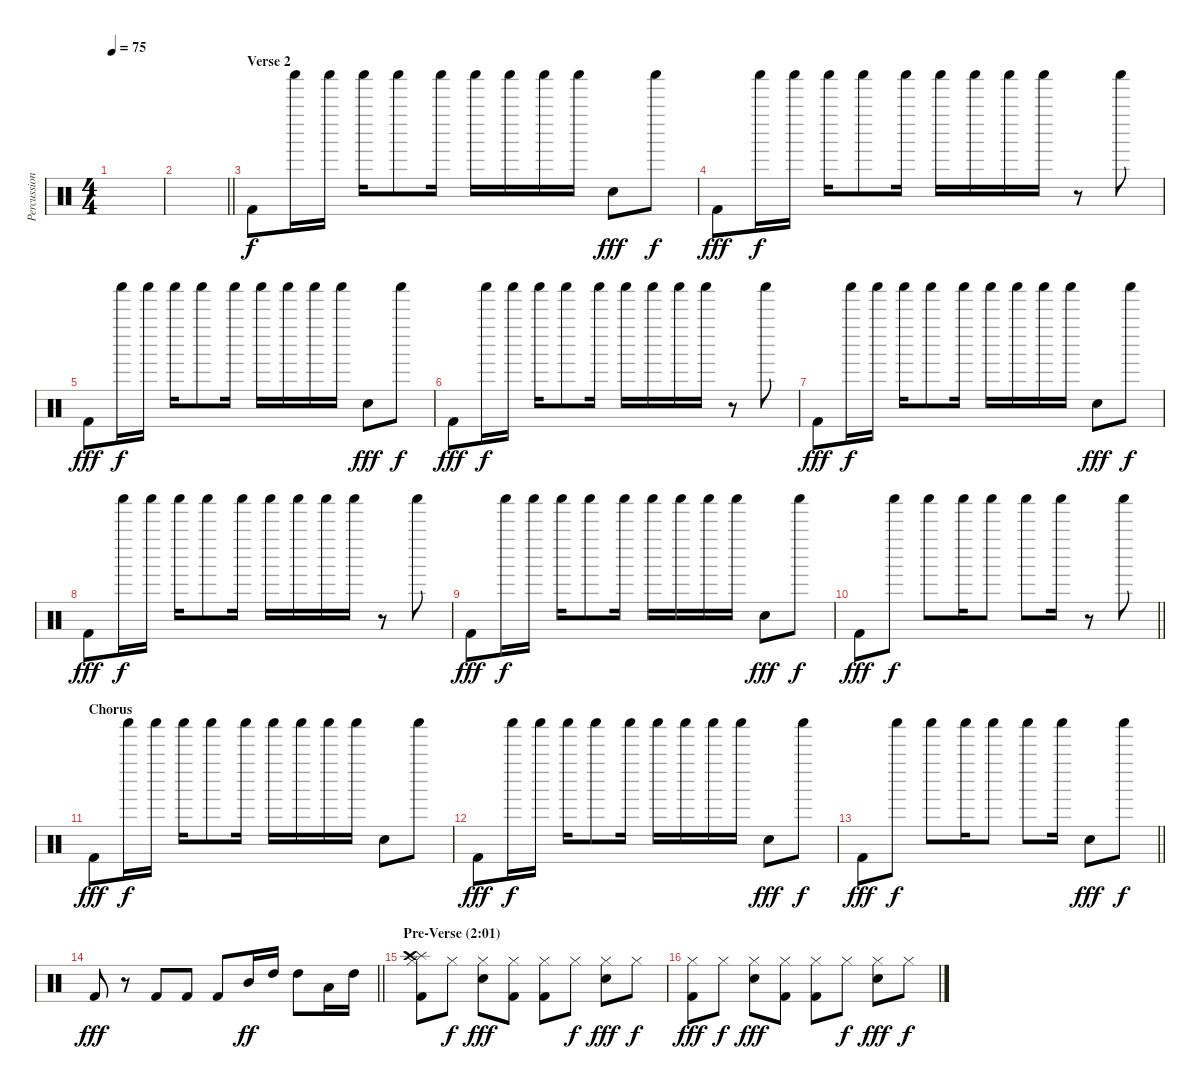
\track ("Percussion" "Percussion") {instrument percussion}
\staff {score}
\articulation defaults
\ts (4 4)
\tempo 75
\clef neutral
\ks c
|
\barLineRight lightlight
|
\section ("" "Verse 2")
"Kick (hit) 2".8 "Shaker (hit)".16{dy f} "Shaker (hit)".16 "Shaker (hit)".16 "Shaker (hit)".8 "Shaker (hit)".16 "Shaker (hit)".16 "Shaker (hit)".16 "Shaker (hit)".16 "Shaker (hit)".16 "Snare (hit) 2".8{dy fff} "Shaker (hit)".8{dy f} |
"Kick (hit) 2".8{dy fff} "Shaker (hit)".16{dy f} "Shaker (hit)".16 "Shaker (hit)".16 "Shaker (hit)".8 "Shaker (hit)".16 "Shaker (hit)".16 "Shaker (hit)".16 "Shaker (hit)".16 "Shaker (hit)".16 r.8 "Shaker (hit)".8 |
"Kick (hit) 2".8{dy fff} "Shaker (hit)".16{dy f} "Shaker (hit)".16 "Shaker (hit)".16 "Shaker (hit)".8 "Shaker (hit)".16 "Shaker (hit)".16 "Shaker (hit)".16 "Shaker (hit)".16 "Shaker (hit)".16 "Snare (hit) 2".8{dy fff} "Shaker (hit)".8{dy f} |
"Kick (hit) 2".8{dy fff} "Shaker (hit)".16{dy f} "Shaker (hit)".16 "Shaker (hit)".16 "Shaker (hit)".8 "Shaker (hit)".16 "Shaker (hit)".16 "Shaker (hit)".16 "Shaker (hit)".16 "Shaker (hit)".16 r.8 "Shaker (hit)".8 |
"Kick (hit) 2".8{dy fff} "Shaker (hit)".16{dy f} "Shaker (hit)".16 "Shaker (hit)".16 "Shaker (hit)".8 "Shaker (hit)".16 "Shaker (hit)".16 "Shaker (hit)".16 "Shaker (hit)".16 "Shaker (hit)".16 "Snare (hit) 2".8{dy fff} "Shaker (hit)".8{dy f} |
"Kick (hit) 2".8{dy fff} "Shaker (hit)".16{dy f} "Shaker (hit)".16 "Shaker (hit)".16 "Shaker (hit)".8 "Shaker (hit)".16 "Shaker (hit)".16 "Shaker (hit)".16 "Shaker (hit)".16 "Shaker (hit)".16 r.8 "Shaker (hit)".8 |
"Kick (hit) 2".8{dy fff} "Shaker (hit)".16{dy f} "Shaker (hit)".16 "Shaker (hit)".16 "Shaker (hit)".8 "Shaker (hit)".16 "Shaker (hit)".16 "Shaker (hit)".16 "Shaker (hit)".16 "Shaker (hit)".16 "Snare (hit) 2".8{dy fff} "Shaker (hit)".8{dy f} |
\barLineRight lightlight "Kick (hit) 2".8{dy fff} "Shaker (hit)".8{dy f} "Shaker (hit)".8 "Shaker (hit)".16 "Shaker (hit)".8 "Shaker (hit)".8 "Shaker (hit)".16
r.8 "Shaker (hit)".8 |
\section ("" "Chorus")
"Kick (hit) 2".8{dy fff} "Shaker (hit)".16{dy f} "Shaker (hit)".16 "Shaker (hit)".16 "Shaker (hit)".8 "Shaker (hit)".16 "Shaker (hit)".16 "Shaker (hit)".16 "Shaker (hit)".16 "Shaker (hit)".16 "Snare (hit) 2".8 "Shaker (hit)".8 |
"Kick (hit) 2".8{dy fff} "Shaker (hit)".16{dy f} "Shaker (hit)".16 "Shaker (hit)".16 "Shaker (hit)".8 "Shaker (hit)".16 "Shaker (hit)".16 "Shaker (hit)".16 "Shaker (hit)".16 "Shaker (hit)".16 "Snare (hit) 2".8{dy fff} "Shaker (hit)".8{dy f} |
\barLineRight lightlight "Kick (hit) 2".8{dy fff} "Shaker (hit)".8{dy f} "Shaker (hit)".8 "Shaker (hit)".16 "Shaker (hit)".8 "Shaker (hit)".8 "Shaker (hit)".16 "Snare (hit) 2".8{dy fff} "Shaker (hit)".8{dy f}
|
\barLineRight lightlight "Kick (hit) 2".8{dy fff}
r.8 "Kick (hit) 2".8 "Kick (hit) 2".8 "Kick (hit) 2".8 "Mid Tom (hit)".16{dy ff} "High Tom (hit)".16 "High Tom (hit)".8 "Low Tom (hit)".16 "High Tom (hit)".16 |
\section ("" "Pre-Verse (2:01)")
("Splash (hit)" "Kick (hit) 2" "Crash high (hit)" "Hi-Hat (closed)").8 "Hi-Hat (closed)".8{dy f} ("Snare (hit) 2" "Hi-Hat (closed)").8{dy fff} ("Kick (hit) 2" "Hi-Hat (closed)").8 ("Kick (hit) 2" "Hi-Hat (closed)").8 "Hi-Hat (closed)".8{dy f} ("Snare (hit) 2" "Hi-Hat (closed)").8{dy fff} "Hi-Hat (closed)".8{dy f} |
("Kick (hit) 2" "Hi-Hat (closed)").8{dy fff} "Hi-Hat (closed)".8{dy f} ("Snare (hit) 2" "Hi-Hat (closed)").8{dy fff} ("Kick (hit) 2" "Hi-Hat (closed)").8 ("Kick (hit) 2" "Hi-Hat (closed)").8 "Hi-Hat (closed)".8{dy f} ("Snare (hit) 2" "Hi-Hat (closed)").8{dy fff} "Hi-Hat (closed)".8{dy f}
